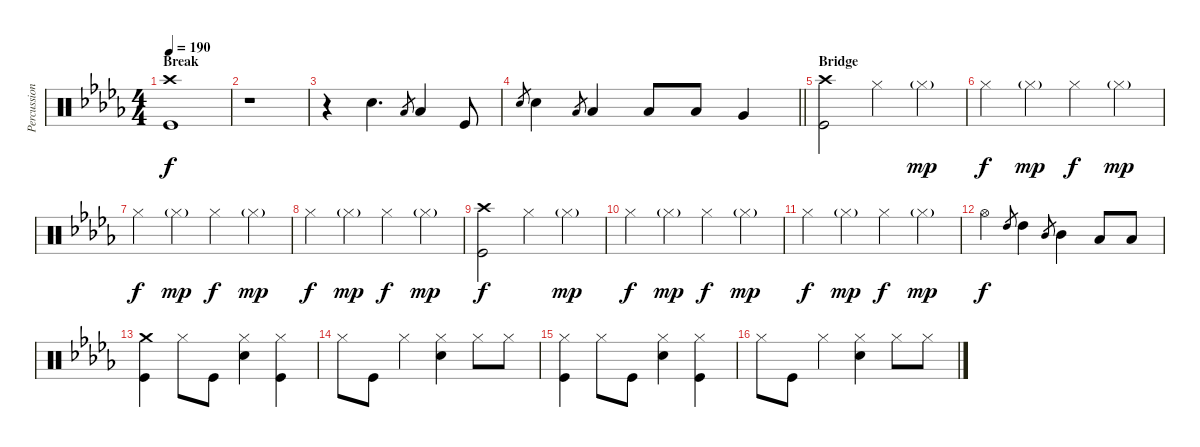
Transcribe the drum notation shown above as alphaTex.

\track ("Percussion" "Percussion") {instrument percussion}
\staff {score}
\articulation defaults
\ts (4 4)
\section ("" "Break")
\tempo 190
\clef neutral
\ks db
("Crash high (hit)" "Kick (hit)").1{dy f} |
r.1 |
r.4 "Electric Snare (hit)".4{d} "Low Tom (hit)".8{gr} "Low Tom (hit)".4 "Kick (hit)".8 |
\barLineRight lightlight "Electric Snare (hit)".8{gr} "Electric Snare (hit)".4 "Low Tom (hit)".8{gr} "Low Tom (hit)".4 "Low Tom (hit)".8 "Low Tom (hit)".8 "Very Low Tom (hit)".4
|
\section ("" "Bridge")
("Crash high (hit)" "Kick (hit)").2 "Hi-Hat (closed)".4 "Hi-Hat (closed)"{g}.4{dy mp} |
"Hi-Hat (closed)".4{dy f} "Hi-Hat (closed)"{g}.4{dy mp} "Hi-Hat (closed)".4{dy f} "Hi-Hat (closed)"{g}.4{dy mp} |
"Hi-Hat (closed)".4{dy f} "Hi-Hat (closed)"{g}.4{dy mp} "Hi-Hat (closed)".4{dy f} "Hi-Hat (closed)"{g}.4{dy mp} |
"Hi-Hat (closed)".4{dy f} "Hi-Hat (closed)"{g}.4{dy mp} "Hi-Hat (closed)".4{dy f} "Hi-Hat (closed)"{g}.4{dy mp} |
("Crash high (hit)" "Kick (hit)").2{dy f} "Hi-Hat (closed)".4 "Hi-Hat (closed)"{g}.4{dy mp} |
"Hi-Hat (closed)".4{dy f} "Hi-Hat (closed)"{g}.4{dy mp} "Hi-Hat (closed)".4{dy f} "Hi-Hat (closed)"{g}.4{dy mp} |
"Hi-Hat (closed)".4{dy f} "Hi-Hat (closed)"{g}.4{dy mp} "Hi-Hat (closed)".4{dy f} "Hi-Hat (closed)"{g}.4{dy mp} |
"Hi-Hat (open)".4{dy f} "High Tom (hit)".8{gr} "High Tom (hit)".4 "Mid Tom (hit)".8{gr} "Mid Tom (hit)".4 "Low Tom (hit)".8 "Low Tom (hit)".8 |
("Crash medium (hit)" "Kick (hit)").4 "Hi-Hat (closed)".8 "Kick (hit)".8 ("Hi-Hat (closed)" "Electric Snare (hit)").4 ("Hi-Hat (closed)" "Kick (hit)").4 |
"Hi-Hat (closed)".8 "Kick (hit)".8 "Hi-Hat (closed)".4 ("Hi-Hat (closed)" "Electric Snare (hit)").4 "Hi-Hat (closed)".8 "Hi-Hat (closed)".8 |
("Hi-Hat (closed)" "Kick (hit)").4 "Hi-Hat (closed)".8 "Kick (hit)".8 ("Hi-Hat (closed)" "Electric Snare (hit)").4 ("Hi-Hat (closed)" "Kick (hit)").4 |
"Hi-Hat (closed)".8 "Kick (hit)".8 "Hi-Hat (closed)".4 ("Hi-Hat (closed)" "Electric Snare (hit)").4 "Hi-Hat (closed)".8 "Hi-Hat (closed)".8
